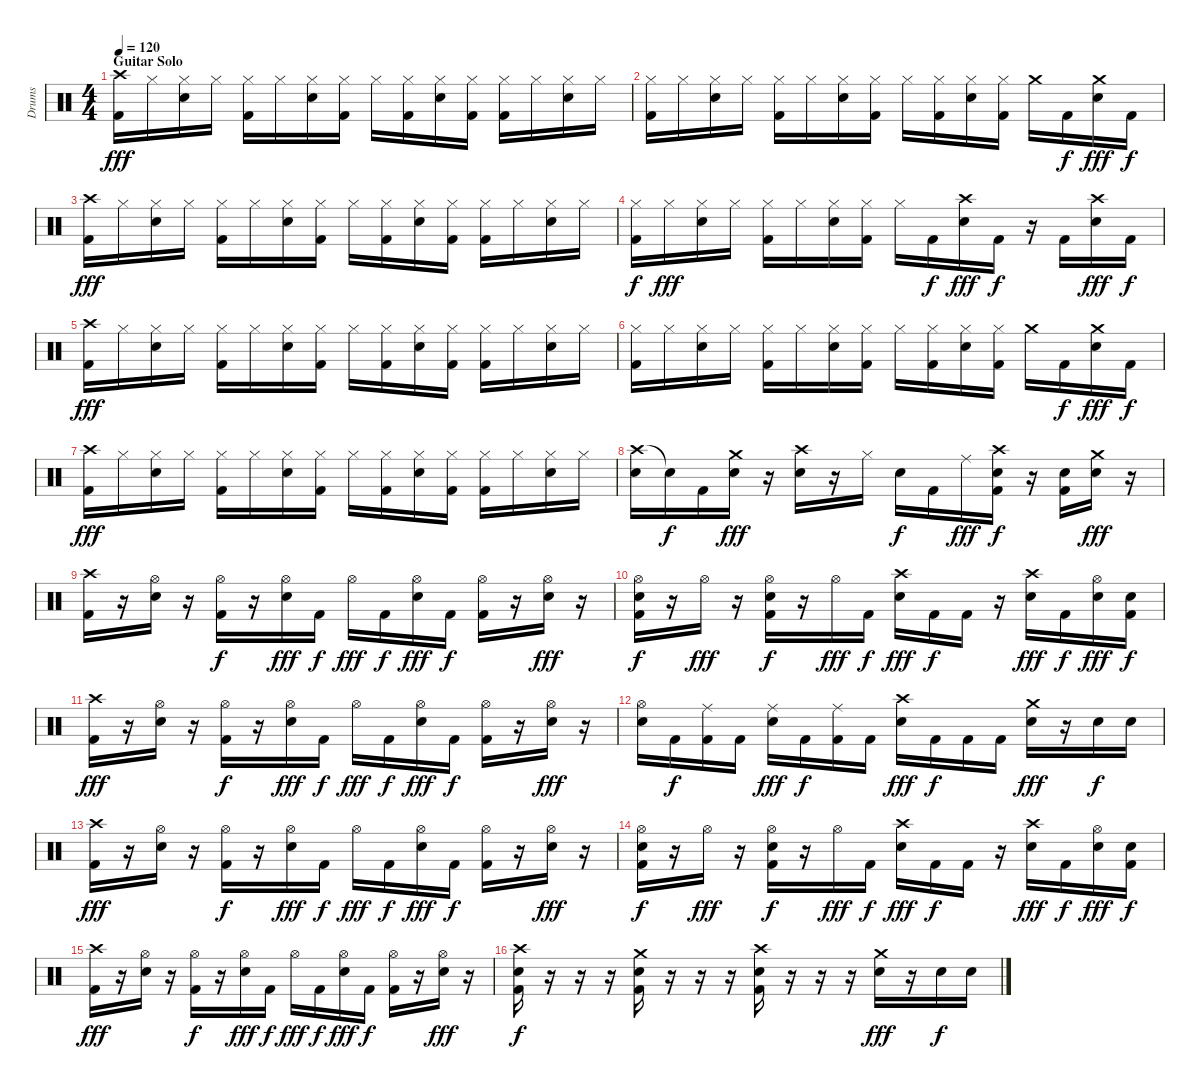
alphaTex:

\track ("Drums" "Drums") {instrument percussion}
\staff {score}
\articulation defaults
\ts (4 4)
\section ("" "Guitar Solo")
\tempo 120
\clef neutral
\ks c
("Crash high (hit)" "Kick (hit) 2").16{dy fff} "Hi-Hat (closed)".16 ("Hi-Hat (closed)" "Snare (hit) 2").16 "Hi-Hat (closed)".16 ("Hi-Hat (closed)" "Kick (hit) 2").16 "Hi-Hat (closed)".16 ("Hi-Hat (closed)" "Snare (hit) 2").16 ("Hi-Hat (closed)" "Kick (hit) 2").16 "Hi-Hat (closed)".16 ("Hi-Hat (closed)" "Kick (hit) 2").16 ("Hi-Hat (closed)" "Snare (hit) 2").16 ("Hi-Hat (closed)" "Kick (hit) 2").16 ("Hi-Hat (closed)" "Kick (hit) 2").16 "Hi-Hat (closed)".16 ("Hi-Hat (closed)" "Snare (hit) 2").16 "Hi-Hat (closed)".16 |
("Hi-Hat (closed)" "Kick (hit) 2").16 "Hi-Hat (closed)".16 ("Hi-Hat (closed)" "Snare (hit) 2").16 "Hi-Hat (closed)".16 ("Hi-Hat (closed)" "Kick (hit) 2").16 "Hi-Hat (closed)".16 ("Hi-Hat (closed)" "Snare (hit) 2").16 ("Hi-Hat (closed)" "Kick (hit) 2").16 "Hi-Hat (closed)".16 ("Hi-Hat (closed)" "Kick (hit) 2").16 ("Hi-Hat (closed)" "Snare (hit) 2").16 ("Hi-Hat (closed)" "Kick (hit) 2").16 "Crash medium (hit)".16 "Kick (hit) 2".16{dy f} ("Crash medium (hit)" "Snare (hit) 2").16{dy fff} "Kick (hit) 2".16{dy f} |
("Crash high (hit)" "Kick (hit) 2").16{dy fff} "Hi-Hat (closed)".16 ("Hi-Hat (closed)" "Snare (hit) 2").16 "Hi-Hat (closed)".16 ("Hi-Hat (closed)" "Kick (hit) 2").16 "Hi-Hat (closed)".16 ("Hi-Hat (closed)" "Snare (hit) 2").16 ("Hi-Hat (closed)" "Kick (hit) 2").16 "Hi-Hat (closed)".16 ("Hi-Hat (closed)" "Kick (hit) 2").16 ("Hi-Hat (closed)" "Snare (hit) 2").16 ("Hi-Hat (closed)" "Kick (hit) 2").16 ("Hi-Hat (closed)" "Kick (hit) 2").16 "Hi-Hat (closed)".16 ("Hi-Hat (closed)" "Snare (hit) 2").16 "Hi-Hat (closed)".16 |
("Hi-Hat (closed)" "Kick (hit) 2").16{dy f} "Hi-Hat (closed)".16{dy fff} ("Hi-Hat (closed)" "Snare (hit) 2").16 "Hi-Hat (closed)".16 ("Hi-Hat (closed)" "Kick (hit) 2").16 "Hi-Hat (closed)".16 ("Hi-Hat (closed)" "Snare (hit) 2").16 ("Hi-Hat (closed)" "Kick (hit) 2").16 "Hi-Hat (closed)".16 "Kick (hit) 2".16{dy f} ("Crash high (hit)" "Snare (hit) 2").16{dy fff} "Kick (hit) 2".16{dy f} r.16 "Kick (hit) 2".16 ("Crash high (hit)" "Snare (hit) 2").16{dy fff} "Kick (hit) 2".16{dy f} |
("Crash high (hit)" "Kick (hit) 2").16{dy fff} "Hi-Hat (closed)".16 ("Hi-Hat (closed)" "Snare (hit) 2").16 "Hi-Hat (closed)".16 ("Hi-Hat (closed)" "Kick (hit) 2").16 "Hi-Hat (closed)".16 ("Hi-Hat (closed)" "Snare (hit) 2").16 ("Hi-Hat (closed)" "Kick (hit) 2").16 "Hi-Hat (closed)".16 ("Hi-Hat (closed)" "Kick (hit) 2").16 ("Hi-Hat (closed)" "Snare (hit) 2").16 ("Hi-Hat (closed)" "Kick (hit) 2").16 ("Hi-Hat (closed)" "Kick (hit) 2").16 "Hi-Hat (closed)".16 ("Hi-Hat (closed)" "Snare (hit) 2").16 "Hi-Hat (closed)".16 |
("Hi-Hat (closed)" "Kick (hit) 2").16 "Hi-Hat (closed)".16 ("Hi-Hat (closed)" "Snare (hit) 2").16 "Hi-Hat (closed)".16 ("Hi-Hat (closed)" "Kick (hit) 2").16 "Hi-Hat (closed)".16 ("Hi-Hat (closed)" "Snare (hit) 2").16 ("Hi-Hat (closed)" "Kick (hit) 2").16 "Hi-Hat (closed)".16 ("Hi-Hat (closed)" "Kick (hit) 2").16 ("Hi-Hat (closed)" "Snare (hit) 2").16 ("Hi-Hat (closed)" "Kick (hit) 2").16 "Crash medium (hit)".16 "Kick (hit) 2".16{dy f} ("Crash medium (hit)" "Snare (hit) 2").16{dy fff} "Kick (hit) 2".16{dy f} |
("Crash high (hit)" "Kick (hit) 2").16{dy fff} "Hi-Hat (closed)".16 ("Hi-Hat (closed)" "Snare (hit) 2").16 "Hi-Hat (closed)".16 ("Hi-Hat (closed)" "Kick (hit) 2").16 "Hi-Hat (closed)".16 ("Hi-Hat (closed)" "Snare (hit) 2").16 ("Hi-Hat (closed)" "Kick (hit) 2").16 "Hi-Hat (closed)".16 ("Hi-Hat (closed)" "Kick (hit) 2").16 ("Hi-Hat (closed)" "Snare (hit) 2").16 ("Hi-Hat (closed)" "Kick (hit) 2").16 ("Hi-Hat (closed)" "Kick (hit) 2").16 "Hi-Hat (closed)".16 ("Hi-Hat (closed)" "Snare (hit) 2").16 "Hi-Hat (closed)".16 |
("Crash high (hit)" "Snare (hit) 2").16 "Snare (hit)"{t}.16{dy f} "Kick (hit) 2".16 ("Crash medium (hit)" "Snare (hit) 2").16{dy fff} r.16 ("Crash high (hit)" "Snare (hit) 2").16 r.16 "Hi-Hat (closed)".16 "Snare (hit) 2".16{dy f} "Kick (hit) 2".16 "Ride (middle)".16{dy fff} ("Crash high (hit)" "Snare (hit) 2" "Kick (hit) 2").16{dy f} r.16 ("Snare (hit) 2" "Kick (hit) 2").16 ("Crash medium (hit)" "Snare (hit) 2").16{dy fff} r.16 |
("Crash high (hit)" "Kick (hit) 2").16 r.16 ("Hi-Hat (open)" "Snare (hit) 2").16 r.16 ("Hi-Hat (open)" "Kick (hit) 2").16{dy f} r.16 ("Hi-Hat (open)" "Snare (hit) 2").16{dy fff} "Kick (hit) 2".16{dy f} "Hi-Hat (open)".16{dy fff} "Kick (hit) 2".16{dy f} ("Hi-Hat (open)" "Snare (hit) 2").16{dy fff} "Kick (hit) 2".16{dy f} ("Hi-Hat (open)" "Kick (hit) 2").16 r.16 ("Hi-Hat (open)" "Snare (hit) 2").16{dy fff} r.16 |
("Hi-Hat (open)" "Snare (hit) 2" "Kick (hit) 2").16{dy f} r.16 "Hi-Hat (open)".16{dy fff} r.16 ("Hi-Hat (open)" "Snare (hit) 2" "Kick (hit) 2").16{dy f} r.16 "Hi-Hat (open)".16{dy fff} "Kick (hit) 2".16{dy f} ("Crash high (hit)" "Snare (hit) 2").16{dy fff} "Kick (hit) 2".16{dy f} "Kick (hit) 2".16 r.16 ("Crash high (hit)" "Snare (hit) 2").16{dy fff} "Kick (hit) 2".16{dy f} ("Hi-Hat (open)" "Snare (hit) 2").16{dy fff} ("Snare (hit) 2" "Kick (hit) 2").16{dy f} |
("Crash high (hit)" "Kick (hit) 2").16{dy fff} r.16 ("Hi-Hat (open)" "Snare (hit) 2").16 r.16 ("Hi-Hat (open)" "Kick (hit) 2").16{dy f} r.16 ("Hi-Hat (open)" "Snare (hit) 2").16{dy fff} "Kick (hit) 2".16{dy f} "Hi-Hat (open)".16{dy fff} "Kick (hit) 2".16{dy f} ("Hi-Hat (open)" "Snare (hit) 2").16{dy fff} "Kick (hit) 2".16{dy f} ("Hi-Hat (open)" "Kick (hit) 2").16 r.16 ("Hi-Hat (open)" "Snare (hit) 2").16{dy fff} r.16 |
("Hi-Hat (open)" "Snare (hit) 2").16 "Kick (hit) 2".16{dy f} ("Ride (middle)" "Kick (hit) 2").16 "Kick (hit) 2".16 ("Ride (middle)" "Snare (hit) 2").16{dy fff} "Kick (hit) 2".16{dy f} ("Ride (middle)" "Kick (hit) 2").16 "Kick (hit) 2".16 ("Crash high (hit)" "Snare (hit) 2").16{dy fff} "Kick (hit) 2".16{dy f} "Kick (hit) 2".16 "Kick (hit) 2".16 ("Crash medium (hit)" "Snare (hit) 2").16{dy fff} r.16 "Snare (hit) 2".16{dy f} "Snare (hit) 2".16 |
("Crash high (hit)" "Kick (hit) 2").16{dy fff} r.16 ("Hi-Hat (open)" "Snare (hit) 2").16 r.16 ("Hi-Hat (open)" "Kick (hit) 2").16{dy f} r.16 ("Hi-Hat (open)" "Snare (hit) 2").16{dy fff} "Kick (hit) 2".16{dy f} "Hi-Hat (open)".16{dy fff} "Kick (hit) 2".16{dy f} ("Hi-Hat (open)" "Snare (hit) 2").16{dy fff} "Kick (hit) 2".16{dy f} ("Hi-Hat (open)" "Kick (hit) 2").16 r.16 ("Hi-Hat (open)" "Snare (hit) 2").16{dy fff} r.16 |
("Hi-Hat (open)" "Snare (hit) 2" "Kick (hit) 2").16{dy f} r.16 "Hi-Hat (open)".16{dy fff} r.16 ("Hi-Hat (open)" "Snare (hit) 2" "Kick (hit) 2").16{dy f} r.16 "Hi-Hat (open)".16{dy fff} "Kick (hit) 2".16{dy f} ("Crash high (hit)" "Snare (hit) 2").16{dy fff} "Kick (hit) 2".16{dy f} "Kick (hit) 2".16 r.16 ("Crash high (hit)" "Snare (hit) 2").16{dy fff} "Kick (hit) 2".16{dy f} ("Hi-Hat (open)" "Snare (hit) 2").16{dy fff} ("Snare (hit) 2" "Kick (hit) 2").16{dy f} |
("Crash high (hit)" "Kick (hit) 2").16{dy fff} r.16 ("Hi-Hat (open)" "Snare (hit) 2").16 r.16 ("Hi-Hat (open)" "Kick (hit) 2").16{dy f} r.16 ("Hi-Hat (open)" "Snare (hit) 2").16{dy fff} "Kick (hit) 2".16{dy f} "Hi-Hat (open)".16{dy fff} "Kick (hit) 2".16{dy f} ("Hi-Hat (open)" "Snare (hit) 2").16{dy fff} "Kick (hit) 2".16{dy f} ("Hi-Hat (open)" "Kick (hit) 2").16 r.16 ("Hi-Hat (open)" "Snare (hit) 2").16{dy fff} r.16 |
("Crash high (hit)" "Snare (hit) 2" "Kick (hit) 2").16{dy f} r.16 r.16 r.16 ("Crash medium (hit)" "Snare (hit) 2" "Kick (hit) 2").16 r.16 r.16 r.16 ("Crash high (hit)" "Snare (hit) 2" "Kick (hit) 2").16 r.16 r.16 r.16 ("Crash medium (hit)" "Snare (hit) 2").16{dy fff} r.16 "Snare (hit) 2".16{dy f} "Snare (hit) 2".16
